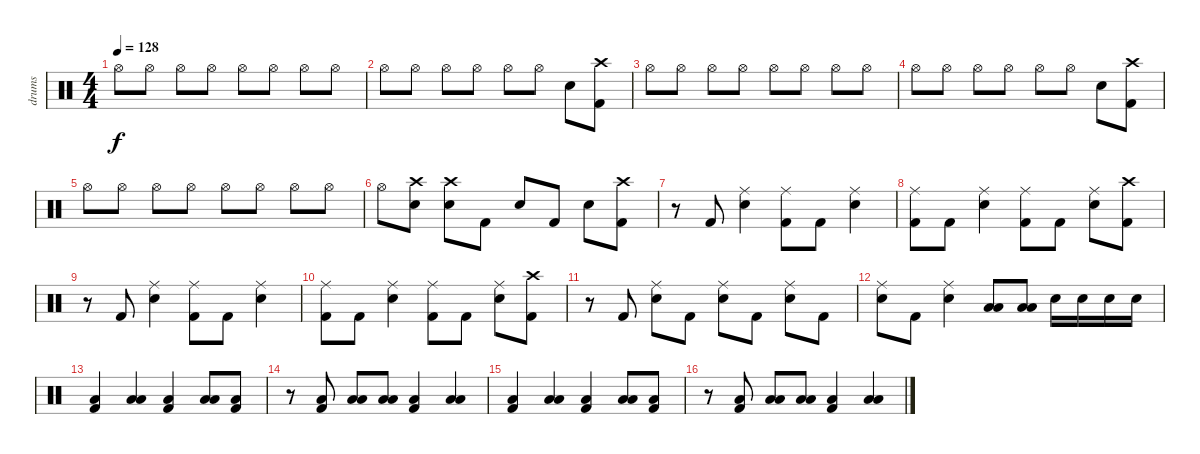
\track ("drums" "drums") {instrument percussion}
\staff {score}
\articulation defaults
\ts (4 4)
\tempo 128
\clef neutral
\ks c "Hi-Hat (open)".8{dy f} "Hi-Hat (open)".8 "Hi-Hat (open)".8 "Hi-Hat (open)".8 "Hi-Hat (open)".8 "Hi-Hat (open)".8 "Hi-Hat (open)".8 "Hi-Hat (open)".8
|
"Hi-Hat (open)".8 "Hi-Hat (open)".8 "Hi-Hat (open)".8 "Hi-Hat (open)".8 "Hi-Hat (open)".8 "Hi-Hat (open)".8 "Electric Snare (hit)".8 ("Crash high (hit)" "Kick (hit) 2").8 |
"Hi-Hat (open)".8 "Hi-Hat (open)".8 "Hi-Hat (open)".8 "Hi-Hat (open)".8 "Hi-Hat (open)".8 "Hi-Hat (open)".8 "Hi-Hat (open)".8 "Hi-Hat (open)".8 |
"Hi-Hat (open)".8 "Hi-Hat (open)".8 "Hi-Hat (open)".8 "Hi-Hat (open)".8 "Hi-Hat (open)".8 "Hi-Hat (open)".8 "Electric Snare (hit)".8 ("Crash high (hit)" "Kick (hit) 2").8 |
"Hi-Hat (open)".8 "Hi-Hat (open)".8 "Hi-Hat (open)".8 "Hi-Hat (open)".8 "Hi-Hat (open)".8 "Hi-Hat (open)".8 "Hi-Hat (open)".8 "Hi-Hat (open)".8 |
"Hi-Hat (open)".8 ("Crash high (hit)" "Electric Snare (hit)").8 ("Crash high (hit)" "Electric Snare (hit)").8 "Kick (hit) 2".8 "Electric Snare (hit)".8 "Kick (hit) 2".8 "Electric Snare (hit)".8 ("Crash high (hit)" "Kick (hit) 2").8 |
r.8 "Kick (hit) 2".8 ("Ride (middle)" "Electric Snare (hit)").4 ("Ride (middle)" "Kick (hit) 2").8 "Kick (hit) 2".8 ("Ride (middle)" "Electric Snare (hit)").4 |
("Ride (middle)" "Kick (hit) 2").8 "Kick (hit) 2".8 ("Ride (middle)" "Electric Snare (hit)").4 ("Ride (middle)" "Kick (hit) 2").8 "Kick (hit) 2".8 ("Ride (middle)" "Electric Snare (hit)").8 ("Crash high (hit)" "Kick (hit) 2").8 |
r.8 "Kick (hit) 2".8 ("Ride (middle)" "Electric Snare (hit)").4 ("Ride (middle)" "Kick (hit) 2").8 "Kick (hit) 2".8 ("Ride (middle)" "Electric Snare (hit)").4 |
("Ride (middle)" "Kick (hit) 2").8 "Kick (hit) 2".8 ("Ride (middle)" "Electric Snare (hit)").4 ("Ride (middle)" "Kick (hit) 2").8 "Kick (hit) 2".8 ("Ride (middle)" "Electric Snare (hit)").8 ("Crash high (hit)" "Kick (hit) 2").8 |
r.8 "Kick (hit) 2".8 ("Ride (middle)" "Electric Snare (hit)").8 "Kick (hit) 2".8 ("Ride (middle)" "Electric Snare (hit)").8 "Kick (hit) 2".8 ("Ride (middle)" "Electric Snare (hit)").8 "Kick (hit) 2".8 |
("Ride (middle)" "Electric Snare (hit)").8 "Kick (hit) 2".8 ("Ride (middle)" "Electric Snare (hit)").4 ("Low Tom (hit)" "Low Floor Tom (hit)").8 ("Low Tom (hit)" "Low Floor Tom (hit)").8 "Electric Snare (hit)".16 "Electric Snare (hit)".16 "Electric Snare (hit)".16 "Electric Snare (hit)".16 |
("Low Floor Tom (hit)" "Kick (hit) 2").4 ("Low Tom (hit)" "Low Floor Tom (hit)").4 ("Low Floor Tom (hit)" "Kick (hit) 2").4 ("Low Tom (hit)" "Low Floor Tom (hit)").8 ("Low Floor Tom (hit)" "Kick (hit) 2").8 |
r.8 ("Low Floor Tom (hit)" "Kick (hit) 2").8 ("Low Tom (hit)" "Low Floor Tom (hit)").8 ("Low Tom (hit)" "Low Floor Tom (hit)").8 ("Low Floor Tom (hit)" "Kick (hit) 2").4 ("Low Tom (hit)" "Low Floor Tom (hit)").4 |
("Low Floor Tom (hit)" "Kick (hit) 2").4 ("Low Tom (hit)" "Low Floor Tom (hit)").4 ("Low Floor Tom (hit)" "Kick (hit) 2").4 ("Low Tom (hit)" "Low Floor Tom (hit)").8 ("Low Floor Tom (hit)" "Kick (hit) 2").8 |
r.8 ("Low Floor Tom (hit)" "Kick (hit) 2").8 ("Low Tom (hit)" "Low Floor Tom (hit)").8 ("Low Tom (hit)" "Low Floor Tom (hit)").8 ("Low Floor Tom (hit)" "Kick (hit) 2").4 ("Low Tom (hit)" "Low Floor Tom (hit)").4
